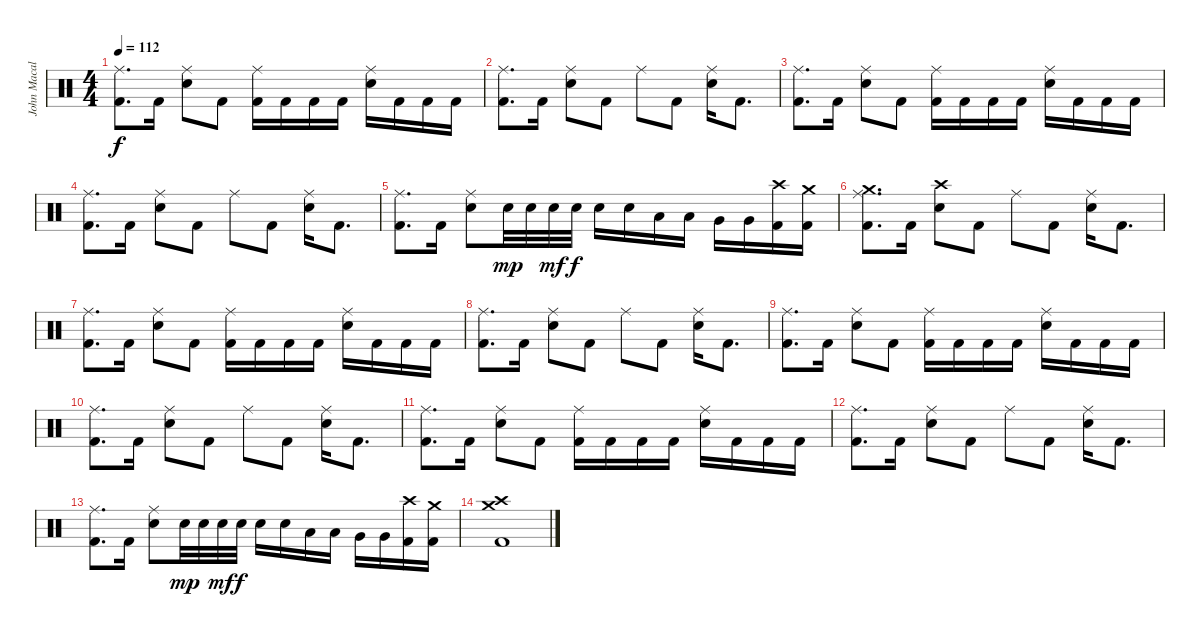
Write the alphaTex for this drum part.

\track ("John Macaluso" "John Macal") {instrument percussion}
\staff {score}
\articulation defaults
\ts (4 4)
\tempo 112
\clef neutral
\ks c
("Ride (middle)" "Kick (hit) 2").8{d dy f} "Kick (hit) 2".16 ("Ride (middle)" "Snare (hit) 2").8 "Kick (hit) 2".8 ("Ride (middle)" "Kick (hit) 2").16 "Kick (hit) 2".16 "Kick (hit) 2".16 "Kick (hit) 2".16 ("Ride (middle)" "Snare (hit) 2").16 "Kick (hit) 2".16 "Kick (hit) 2".16 "Kick (hit) 2".16 |
("Ride (middle)" "Kick (hit) 2").8{d} "Kick (hit) 2".16 ("Ride (middle)" "Snare (hit) 2").8 "Kick (hit) 2".8 "Ride (middle)".8 "Kick (hit) 2".8 ("Ride (middle)" "Snare (hit) 2").16 "Kick (hit) 2".8{d} |
("Ride (middle)" "Kick (hit) 2").8{d} "Kick (hit) 2".16 ("Ride (middle)" "Snare (hit) 2").8 "Kick (hit) 2".8 ("Ride (middle)" "Kick (hit) 2").16 "Kick (hit) 2".16 "Kick (hit) 2".16 "Kick (hit) 2".16 ("Ride (middle)" "Snare (hit) 2").16 "Kick (hit) 2".16 "Kick (hit) 2".16 "Kick (hit) 2".16 |
("Ride (middle)" "Kick (hit) 2").8{d} "Kick (hit) 2".16 ("Ride (middle)" "Snare (hit) 2").8 "Kick (hit) 2".8 "Ride (middle)".8 "Kick (hit) 2".8 ("Ride (middle)" "Snare (hit) 2").16 "Kick (hit) 2".8{d} |
("Ride (middle)" "Kick (hit) 2").8{d} "Kick (hit) 2".16 ("Ride (middle)" "Snare (hit) 2").8 "Snare (hit) 2".32{dy mp} "Snare (hit) 2".32 "Snare (hit) 2".32{dy mf} "Snare (hit) 2".32{dy f} "Snare (hit) 2".16 "Snare (hit) 2".16 "Low Tom (hit)".16 "Low Tom (hit)".16 "Very Low Tom (hit)".16 "Very Low Tom (hit)".16 ("Crash high (hit)" "Kick (hit) 2").16 ("Crash medium (hit)" "Kick (hit) 2").16 |
("Crash medium (hit)" "Ride (middle)" "Kick (hit) 2").8{d} "Kick (hit) 2".16 ("Crash high (hit)" "Snare (hit) 2").8 "Kick (hit) 2".8 "Ride (middle)".8 "Kick (hit) 2".8 ("Ride (middle)" "Snare (hit) 2").16 "Kick (hit) 2".8{d} |
("Ride (middle)" "Kick (hit) 2").8{d} "Kick (hit) 2".16 ("Ride (middle)" "Snare (hit) 2").8 "Kick (hit) 2".8 ("Ride (middle)" "Kick (hit) 2").16 "Kick (hit) 2".16 "Kick (hit) 2".16 "Kick (hit) 2".16 ("Ride (middle)" "Snare (hit) 2").16 "Kick (hit) 2".16 "Kick (hit) 2".16 "Kick (hit) 2".16 |
("Ride (middle)" "Kick (hit) 2").8{d} "Kick (hit) 2".16 ("Ride (middle)" "Snare (hit) 2").8 "Kick (hit) 2".8 "Ride (middle)".8 "Kick (hit) 2".8 ("Ride (middle)" "Snare (hit) 2").16 "Kick (hit) 2".8{d} |
("Ride (middle)" "Kick (hit) 2").8{d} "Kick (hit) 2".16 ("Ride (middle)" "Snare (hit) 2").8 "Kick (hit) 2".8 ("Ride (middle)" "Kick (hit) 2").16 "Kick (hit) 2".16 "Kick (hit) 2".16 "Kick (hit) 2".16 ("Ride (middle)" "Snare (hit) 2").16 "Kick (hit) 2".16 "Kick (hit) 2".16 "Kick (hit) 2".16 |
("Ride (middle)" "Kick (hit) 2").8{d} "Kick (hit) 2".16 ("Ride (middle)" "Snare (hit) 2").8 "Kick (hit) 2".8 "Ride (middle)".8 "Kick (hit) 2".8 ("Ride (middle)" "Snare (hit) 2").16 "Kick (hit) 2".8{d} |
("Ride (middle)" "Kick (hit) 2").8{d} "Kick (hit) 2".16 ("Ride (middle)" "Snare (hit) 2").8 "Kick (hit) 2".8 ("Ride (middle)" "Kick (hit) 2").16 "Kick (hit) 2".16 "Kick (hit) 2".16 "Kick (hit) 2".16 ("Ride (middle)" "Snare (hit) 2").16 "Kick (hit) 2".16 "Kick (hit) 2".16 "Kick (hit) 2".16 |
("Ride (middle)" "Kick (hit) 2").8{d} "Kick (hit) 2".16 ("Ride (middle)" "Snare (hit) 2").8 "Kick (hit) 2".8 "Ride (middle)".8 "Kick (hit) 2".8 ("Ride (middle)" "Snare (hit) 2").16 "Kick (hit) 2".8{d} |
("Ride (middle)" "Kick (hit) 2").8{d} "Kick (hit) 2".16 ("Ride (middle)" "Snare (hit) 2").8 "Snare (hit) 2".32{dy mp} "Snare (hit) 2".32 "Snare (hit) 2".32{dy mf} "Snare (hit) 2".32{dy f} "Snare (hit) 2".16 "Snare (hit) 2".16 "Low Tom (hit)".16 "Low Tom (hit)".16 "Very Low Tom (hit)".16 "Very Low Tom (hit)".16 ("Crash high (hit)" "Kick (hit) 2").16 ("Crash medium (hit)" "Kick (hit) 2").16 |
("Crash medium (hit)" "Crash high (hit)" "Kick (hit) 2").1
